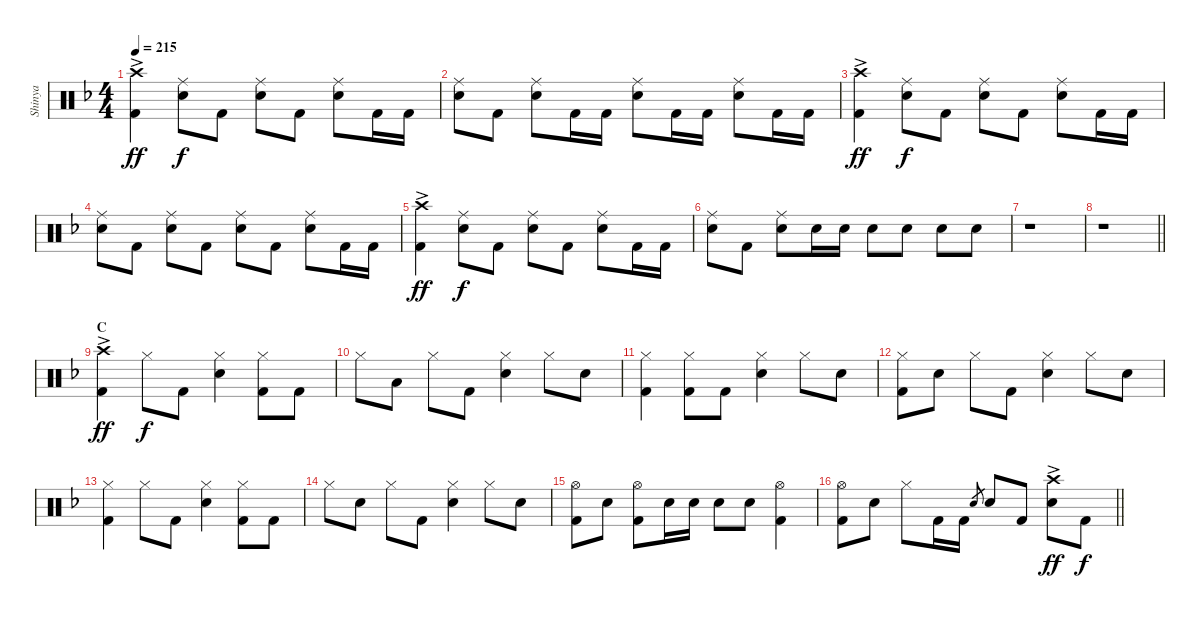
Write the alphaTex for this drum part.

\track ("Shinya" "Shinya") {instrument percussion}
\staff {score}
\articulation defaults
\ts (4 4)
\tempo 215
\clef neutral
\ks f
("Crash high (hit)"{ac} "Kick (hit) 2").4{dy ff} ("Ride (middle)" "Snare (hit) 2").8{dy f} "Kick (hit) 2".8 ("Ride (middle)" "Snare (hit) 2").8 "Kick (hit) 2".8 ("Ride (middle)" "Snare (hit) 2").8 "Kick (hit) 2".16 "Kick (hit) 2".16 |
("Ride (middle)" "Snare (hit) 2").8 "Kick (hit) 2".8 ("Ride (middle)" "Snare (hit) 2").8 "Kick (hit) 2".16 "Kick (hit) 2".16 ("Ride (middle)" "Snare (hit) 2").8 "Kick (hit) 2".16 "Kick (hit) 2".16 ("Ride (middle)" "Snare (hit) 2").8 "Kick (hit) 2".16 "Kick (hit) 2".16 |
("Crash high (hit)"{ac} "Kick (hit) 2").4{dy ff} ("Ride (middle)" "Snare (hit) 2").8{dy f} "Kick (hit) 2".8 ("Ride (middle)" "Snare (hit) 2").8 "Kick (hit) 2".8 ("Ride (middle)" "Snare (hit) 2").8 "Kick (hit) 2".16 "Kick (hit) 2".16 |
("Ride (middle)" "Snare (hit) 2").8 "Kick (hit) 2".8 ("Ride (middle)" "Snare (hit) 2").8 "Kick (hit) 2".8 ("Ride (middle)" "Snare (hit) 2").8 "Kick (hit) 2".8 ("Ride (middle)" "Snare (hit) 2").8 "Kick (hit) 2".16 "Kick (hit) 2".16 |
("Crash high (hit)"{ac} "Kick (hit) 2").4{dy ff} ("Ride (middle)" "Snare (hit) 2").8{dy f} "Kick (hit) 2".8 ("Ride (middle)" "Snare (hit) 2").8 "Kick (hit) 2".8 ("Ride (middle)" "Snare (hit) 2").8 "Kick (hit) 2".16 "Kick (hit) 2".16 |
("Ride (middle)" "Snare (hit) 2").8 "Kick (hit) 2".8 ("Ride (middle)" "Snare (hit) 2").8 "Snare (hit) 2".16 "Snare (hit) 2".16 "Snare (hit) 2".8 "Snare (hit) 2".8 "Snare (hit) 2".8 "Snare (hit) 2".8 |
r.1 |
\barLineRight lightlight
r.1 |
\section ("" "C")
("Crash high (hit)"{ac} "Kick (hit) 2").4{dy ff} "Hi-Hat (closed)".8{dy f} "Kick (hit) 2".8 ("Hi-Hat (closed)" "Snare (hit) 2").4 ("Hi-Hat (closed)" "Kick (hit) 2").8 "Kick (hit) 2".8 |
"Hi-Hat (closed)".8 "Low Tom (hit)".8 "Hi-Hat (closed)".8 "Kick (hit) 2".8 ("Hi-Hat (closed)" "Snare (hit) 2").4 "Hi-Hat (closed)".8 "Snare (hit) 2".8 |
("Hi-Hat (closed)" "Kick (hit) 2").4 ("Hi-Hat (closed)" "Kick (hit) 2").8 "Kick (hit) 2".8 ("Hi-Hat (closed)" "Snare (hit) 2").4 "Hi-Hat (closed)".8 "Snare (hit) 2".8 |
("Hi-Hat (closed)" "Kick (hit) 2").8 "Snare (hit) 2".8 "Hi-Hat (closed)".8 "Kick (hit) 2".8 ("Hi-Hat (closed)" "Snare (hit) 2").4 "Hi-Hat (closed)".8 "Snare (hit) 2".8 |
("Hi-Hat (closed)" "Kick (hit) 2").4 "Hi-Hat (closed)".8 "Kick (hit) 2".8 ("Hi-Hat (closed)" "Snare (hit) 2").4 ("Hi-Hat (closed)" "Kick (hit) 2").8 "Kick (hit) 2".8 |
"Hi-Hat (closed)".8 "Snare (hit) 2".8 "Hi-Hat (closed)".8 "Kick (hit) 2".8 ("Hi-Hat (closed)" "Snare (hit) 2").4 "Hi-Hat (closed)".8 "Snare (hit) 2".8 |
("Hi-Hat (open)" "Kick (hit) 2").8 "Snare (hit) 2".8 ("Hi-Hat (open)" "Kick (hit) 2").8 "Snare (hit) 2".16 "Snare (hit) 2".16 "Snare (hit) 2".8 "Snare (hit) 2".8 ("Hi-Hat (open)" "Kick (hit) 2").4 |
\barLineRight lightlight
("Hi-Hat (open)" "Kick (hit) 2").8 "Snare (hit) 2".8 "Hi-Hat (closed)".8 "Kick (hit) 2".16 "Kick (hit) 2".16 "Snare (hit) 2".8{gr} "Snare (hit) 2".8 "Kick (hit) 2".8 ("Crash high (hit)"{ac} "Snare (hit) 2").8{dy ff} "Kick (hit) 2".8{dy f}
